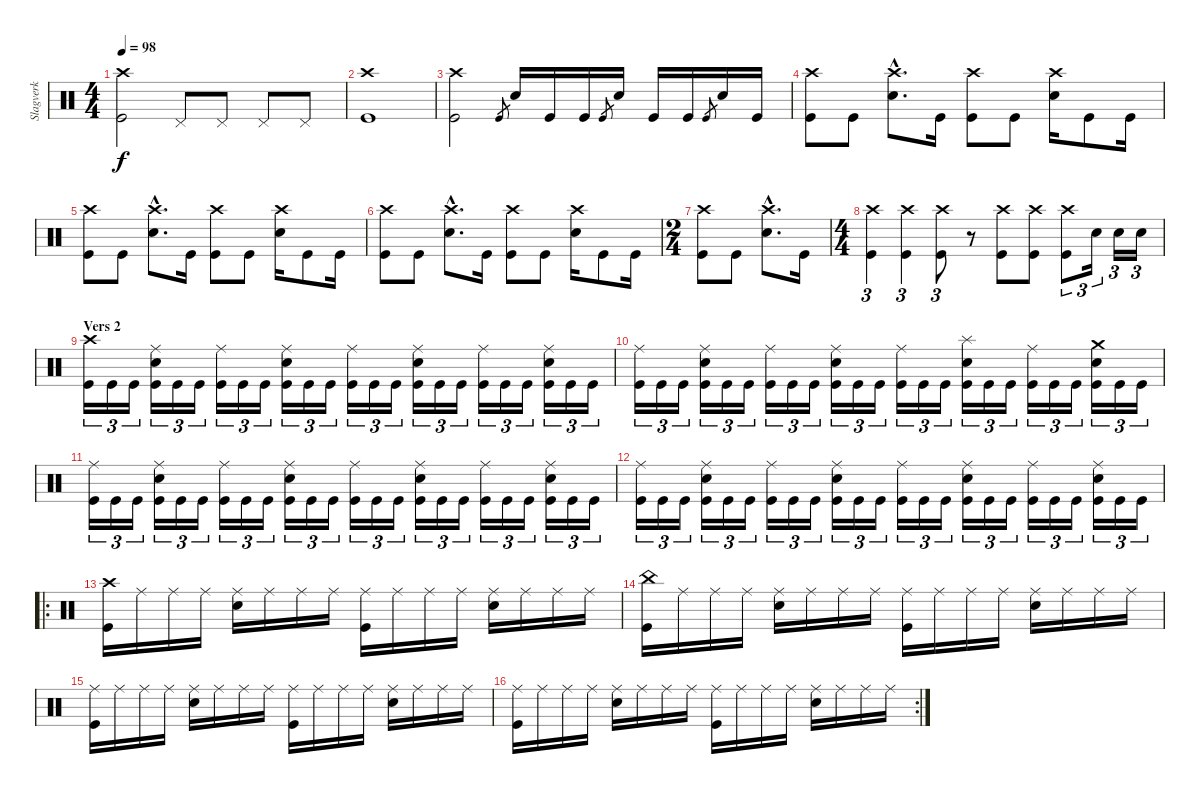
\track ("Slagverk" "Slagverk") {instrument percussion}
\staff {score}
\articulation defaults
\ts (4 4)
\tempo 98
\clef neutral
\ks c
("Crash high (hit)" "Kick (hit)").2{dy f} "Pedal Hi-Hat (hit)".8 "Pedal Hi-Hat (hit)".8 "Pedal Hi-Hat (hit)".8 "Pedal Hi-Hat (hit)".8 |
("Crash high (hit)" "Kick (hit)").1 |
("Crash high (hit)" "Kick (hit)").2 "Kick (hit)"{sl}.8{gr} "Electric Snare (hit)".16 "Kick (hit)".16 "Kick (hit)".16 "Kick (hit)"{sl}.8{gr} "Electric Snare (hit)".16 "Kick (hit)".16 "Kick (hit)".16 "Kick (hit)"{sl}.8{gr} "Electric Snare (hit)".16 "Kick (hit)".16 |
("Crash high (hit)" "Kick (hit)").8 "Kick (hit)".8 ("Crash high (hit)"{hac} "Electric Snare (hit)"{hac}).8{d} "Kick (hit)".16 ("Crash high (hit)" "Kick (hit)").8 "Kick (hit)".8 ("Crash high (hit)" "Electric Snare (hit)").16 "Kick (hit)".8 "Kick (hit)".16 |
("Crash high (hit)" "Kick (hit)").8 "Kick (hit)".8 ("Crash high (hit)"{hac} "Electric Snare (hit)"{hac}).8{d} "Kick (hit)".16 ("Crash high (hit)" "Kick (hit)").8 "Kick (hit)".8 ("Crash high (hit)" "Electric Snare (hit)").16 "Kick (hit)".8 "Kick (hit)".16 |
("Crash high (hit)" "Kick (hit)").8 "Kick (hit)".8 ("Crash high (hit)"{hac} "Electric Snare (hit)"{hac}).8{d} "Kick (hit)".16 ("Crash high (hit)" "Kick (hit)").8 "Kick (hit)".8 ("Crash high (hit)" "Electric Snare (hit)").16 "Kick (hit)".8 "Kick (hit)".16 |
\ts (2 4)
("Crash high (hit)" "Kick (hit)").8 "Kick (hit)".8 ("Crash high (hit)"{hac} "Electric Snare (hit)"{hac}).8{d} "Kick (hit)".16 |
\ts (4 4)
("Crash high (hit)" "Kick (hit)").4{tu (3 2)} ("Crash high (hit)" "Kick (hit)").4{tu (3 2)} ("Crash high (hit)" "Kick (hit)").8{tu (3 2)} r.8 ("Crash high (hit)" "Kick (hit)").8 ("Crash high (hit)" "Kick (hit)").8 ("Crash high (hit)" "Kick (hit)").8{tu (3 2)} "Electric Snare (hit)".16{tu (3 2)} "Electric Snare (hit)".16{tu (3 2)} "Electric Snare (hit)".16{tu (3 2)} |
\section ("" "Vers 2")
("Crash high (hit)" "Kick (hit)").16{tu (3 2)} "Kick (hit)".16{tu (3 2)} "Kick (hit)".16{tu (3 2)} ("Ride (middle)" "Electric Snare (hit)" "Kick (hit)").16{tu (3 2)} "Kick (hit)".16{tu (3 2)} "Kick (hit)".16{tu (3 2)} ("Ride (middle)" "Kick (hit)").16{tu (3 2)} "Kick (hit)".16{tu (3 2)} "Kick (hit)".16{tu (3 2)} ("Ride (middle)" "Electric Snare (hit)" "Kick (hit)").16{tu (3 2)} "Kick (hit)".16{tu (3 2)} "Kick (hit)".16{tu (3 2)} ("Ride (middle)" "Kick (hit)").16{tu (3 2)} "Kick (hit)".16{tu (3 2)} "Kick (hit)".16{tu (3 2)} ("Ride (middle)" "Electric Snare (hit)" "Kick (hit)").16{tu (3 2)} "Kick (hit)".16{tu (3 2)} "Kick (hit)".16{tu (3 2)} ("Ride (middle)" "Kick (hit)").16{tu (3 2)} "Kick (hit)".16{tu (3 2)} "Kick (hit)".16{tu (3 2)} ("Ride (middle)" "Electric Snare (hit)" "Kick (hit)").16{tu (3 2)} "Kick (hit)".16{tu (3 2)} "Kick (hit)".16{tu (3 2)} |
("Ride (middle)" "Kick (hit)").16{tu (3 2)} "Kick (hit)".16{tu (3 2)} "Kick (hit)".16{tu (3 2)} ("Ride (middle)" "Electric Snare (hit)" "Kick (hit)").16{tu (3 2)} "Kick (hit)".16{tu (3 2)} "Kick (hit)".16{tu (3 2)} ("Ride (middle)" "Kick (hit)").16{tu (3 2)} "Kick (hit)".16{tu (3 2)} "Kick (hit)".16{tu (3 2)} ("Ride (middle)" "Electric Snare (hit)" "Kick (hit)").16{tu (3 2)} "Kick (hit)".16{tu (3 2)} "Kick (hit)".16{tu (3 2)} ("Ride (middle)" "Kick (hit)").16{tu (3 2)} "Kick (hit)".16{tu (3 2)} "Kick (hit)".16{tu (3 2)} ("Splash (hit)" "Electric Snare (hit)" "Kick (hit)").16{tu (3 2)} "Kick (hit)".16{tu (3 2)} "Kick (hit)".16{tu (3 2)} ("Ride (middle)" "Kick (hit)").16{tu (3 2)} "Kick (hit)".16{tu (3 2)} "Kick (hit)".16{tu (3 2)} ("Crash medium (hit)" "Electric Snare (hit)" "Kick (hit)").16{tu (3 2)} "Kick (hit)".16{tu (3 2)} "Kick (hit)".16{tu (3 2)} |
("Ride (middle)" "Kick (hit)").16{tu (3 2)} "Kick (hit)".16{tu (3 2)} "Kick (hit)".16{tu (3 2)} ("Ride (middle)" "Electric Snare (hit)" "Kick (hit)").16{tu (3 2)} "Kick (hit)".16{tu (3 2)} "Kick (hit)".16{tu (3 2)} ("Ride (middle)" "Kick (hit)").16{tu (3 2)} "Kick (hit)".16{tu (3 2)} "Kick (hit)".16{tu (3 2)} ("Ride (middle)" "Electric Snare (hit)" "Kick (hit)").16{tu (3 2)} "Kick (hit)".16{tu (3 2)} "Kick (hit)".16{tu (3 2)} ("Ride (middle)" "Kick (hit)").16{tu (3 2)} "Kick (hit)".16{tu (3 2)} "Kick (hit)".16{tu (3 2)} ("Ride (middle)" "Electric Snare (hit)" "Kick (hit)").16{tu (3 2)} "Kick (hit)".16{tu (3 2)} "Kick (hit)".16{tu (3 2)} ("Ride (middle)" "Kick (hit)").16{tu (3 2)} "Kick (hit)".16{tu (3 2)} "Kick (hit)".16{tu (3 2)} ("Ride (middle)" "Electric Snare (hit)" "Kick (hit)").16{tu (3 2)} "Kick (hit)".16{tu (3 2)} "Kick (hit)".16{tu (3 2)} |
("Ride (middle)" "Kick (hit)").16{tu (3 2)} "Kick (hit)".16{tu (3 2)} "Kick (hit)".16{tu (3 2)} ("Ride (middle)" "Electric Snare (hit)" "Kick (hit)").16{tu (3 2)} "Kick (hit)".16{tu (3 2)} "Kick (hit)".16{tu (3 2)} ("Ride (middle)" "Kick (hit)").16{tu (3 2)} "Kick (hit)".16{tu (3 2)} "Kick (hit)".16{tu (3 2)} ("Ride (middle)" "Electric Snare (hit)" "Kick (hit)").16{tu (3 2)} "Kick (hit)".16{tu (3 2)} "Kick (hit)".16{tu (3 2)} ("Ride (middle)" "Kick (hit)").16{tu (3 2)} "Kick (hit)".16{tu (3 2)} "Kick (hit)".16{tu (3 2)} ("Ride (middle)" "Electric Snare (hit)" "Kick (hit)").16{tu (3 2)} "Kick (hit)".16{tu (3 2)} "Kick (hit)".16{tu (3 2)} ("Ride (middle)" "Kick (hit)").16{tu (3 2)} "Kick (hit)".16{tu (3 2)} "Kick (hit)".16{tu (3 2)} ("Ride (middle)" "Electric Snare (hit)" "Kick (hit)").16{tu (3 2)} "Kick (hit)".16{tu (3 2)} "Kick (hit)".16{tu (3 2)} |
\ro
("Crash high (hit)" "Kick (hit)").16 "Ride (middle)".16 "Ride (middle)".16 "Ride (middle)".16 ("Ride (middle)" "Electric Snare (hit)").16 "Ride (middle)".16 "Ride (middle)".16 "Ride (middle)".16 ("Ride (middle)" "Kick (hit)").16 "Ride (middle)".16 "Ride (middle)".16 "Ride (middle)".16 ("Ride (middle)" "Electric Snare (hit)").16 "Ride (middle)".16 "Ride (middle)".16 "Ride (middle)".16 |
("China (hit)" "Kick (hit)").16 "Ride (middle)".16 "Ride (middle)".16 "Ride (middle)".16 ("Ride (middle)" "Electric Snare (hit)").16 "Ride (middle)".16 "Ride (middle)".16 "Ride (middle)".16 ("Ride (middle)" "Kick (hit)").16 "Ride (middle)".16 "Ride (middle)".16 "Ride (middle)".16 ("Ride (middle)" "Electric Snare (hit)").16 "Ride (middle)".16 "Ride (middle)".16 "Ride (middle)".16 |
("Ride (middle)" "Kick (hit)").16 "Ride (middle)".16 "Ride (middle)".16 "Ride (middle)".16 ("Ride (middle)" "Electric Snare (hit)").16 "Ride (middle)".16 "Ride (middle)".16 "Ride (middle)".16 ("Ride (middle)" "Kick (hit)").16 "Ride (middle)".16 "Ride (middle)".16 "Ride (middle)".16 ("Ride (middle)" "Electric Snare (hit)").16 "Ride (middle)".16 "Ride (middle)".16 "Ride (middle)".16 |
\rc 2
("Ride (middle)" "Kick (hit)").16 "Ride (middle)".16 "Ride (middle)".16 "Ride (middle)".16 ("Ride (middle)" "Electric Snare (hit)").16 "Ride (middle)".16 "Ride (middle)".16 "Ride (middle)".16 ("Ride (middle)" "Kick (hit)").16 "Ride (middle)".16 "Ride (middle)".16 "Ride (middle)".16 ("Ride (middle)" "Electric Snare (hit)").16 "Ride (middle)".16 "Ride (middle)".16 "Ride (middle)".16
